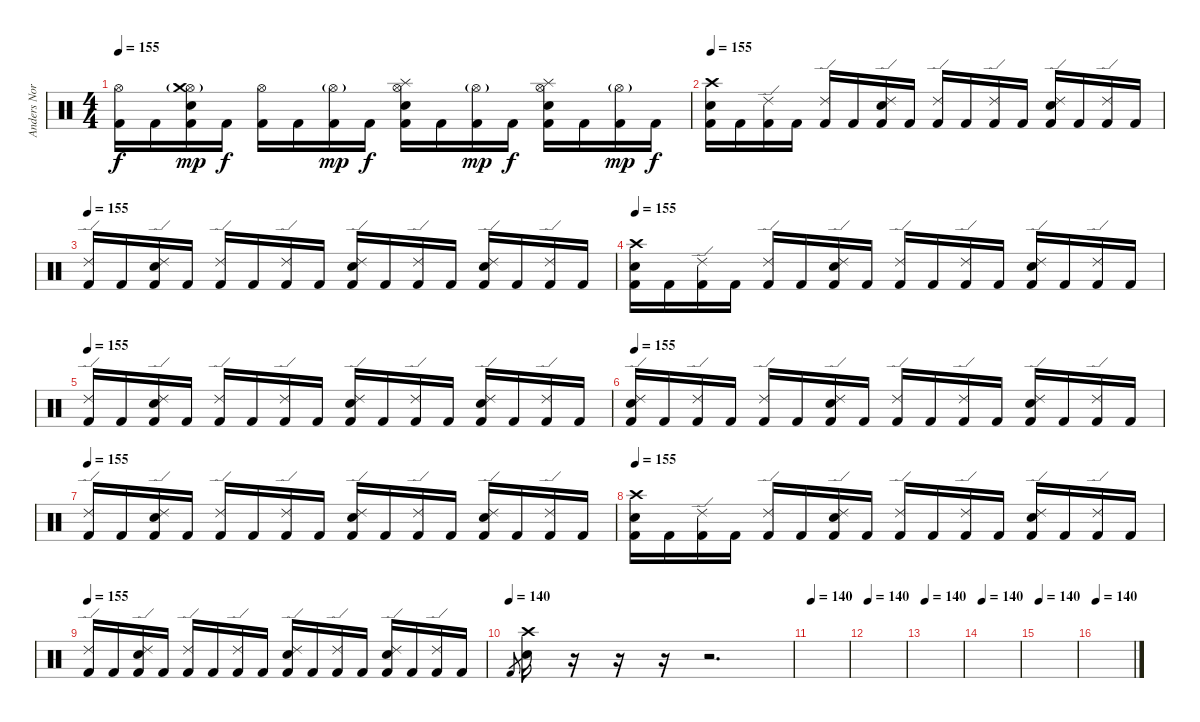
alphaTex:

\track ("Anders Nordin" "Anders Nor") {instrument percussion}
\staff {score}
\articulation defaults
\ts (4 4)
\tempo 155
\clef neutral
\ks c
("Kick (hit) 2" "Hi-Hat (open)").16{dy f} "Kick (hit) 2".16 ("Kick (hit) 2" "Electric Snare (hit)" "Hi-Hat (open)"{g} "Crash medium (hit)").16{dy mp} "Kick (hit) 2".16{dy f} ("Kick (hit) 2" "Hi-Hat (open)").16 "Kick (hit) 2".16 ("Kick (hit) 2" "Hi-Hat (open)"{g}).16{dy mp} "Kick (hit) 2".16{dy f} ("Kick (hit) 2" "Electric Snare (hit)" "Hi-Hat (open)" "Splash (hit)").16 "Kick (hit) 2".16 ("Kick (hit) 2" "Hi-Hat (open)"{g}).16{dy mp} "Kick (hit) 2".16{dy f} ("Kick (hit) 2" "Electric Snare (hit)" "Hi-Hat (open)" "Splash (hit)").16 "Kick (hit) 2".16 ("Kick (hit) 2" "Hi-Hat (open)"{g}).16{dy mp} "Kick (hit) 2".16{dy f} |
\tempo 155
("Kick (hit) 2" "Electric Snare (hit)" "Crash high (hit)").16 "Kick (hit) 2".16 ("Kick (hit) 2" "Ride (edge) 2").16 "Kick (hit) 2".16 ("Kick (hit) 2" "Ride (edge) 2").16 "Kick (hit) 2".16 ("Kick (hit) 2" "Electric Snare (hit)" "Ride (edge) 2").16 "Kick (hit) 2".16 ("Kick (hit) 2" "Ride (edge) 2").16 "Kick (hit) 2".16 ("Kick (hit) 2" "Ride (edge) 2").16 "Kick (hit) 2".16 ("Kick (hit) 2" "Electric Snare (hit)" "Ride (edge) 2").16 "Kick (hit) 2".16 ("Kick (hit) 2" "Ride (edge) 2").16 "Kick (hit) 2".16 |
\tempo 155
("Kick (hit) 2" "Ride (edge) 2").16 "Kick (hit) 2".16 ("Kick (hit) 2" "Electric Snare (hit)" "Ride (edge) 2").16 "Kick (hit) 2".16 ("Kick (hit) 2" "Ride (edge) 2").16 "Kick (hit) 2".16 ("Kick (hit) 2" "Ride (edge) 2").16 "Kick (hit) 2".16 ("Kick (hit) 2" "Electric Snare (hit)" "Ride (edge) 2").16 "Kick (hit) 2".16 ("Kick (hit) 2" "Ride (edge) 2").16 "Kick (hit) 2".16 ("Kick (hit) 2" "Electric Snare (hit)" "Ride (edge) 2").16 "Kick (hit) 2".16 ("Kick (hit) 2" "Ride (edge) 2").16 "Kick (hit) 2".16 |
\tempo 155
("Kick (hit) 2" "Electric Snare (hit)" "Crash high (hit)").16 "Kick (hit) 2".16 ("Kick (hit) 2" "Ride (edge) 2").16 "Kick (hit) 2".16 ("Kick (hit) 2" "Ride (edge) 2").16 "Kick (hit) 2".16 ("Kick (hit) 2" "Electric Snare (hit)" "Ride (edge) 2").16 "Kick (hit) 2".16 ("Kick (hit) 2" "Ride (edge) 2").16 "Kick (hit) 2".16 ("Kick (hit) 2" "Ride (edge) 2").16 "Kick (hit) 2".16 ("Kick (hit) 2" "Electric Snare (hit)" "Ride (edge) 2").16 "Kick (hit) 2".16 ("Kick (hit) 2" "Ride (edge) 2").16 "Kick (hit) 2".16 |
\tempo 155
("Kick (hit) 2" "Ride (edge) 2").16 "Kick (hit) 2".16 ("Kick (hit) 2" "Electric Snare (hit)" "Ride (edge) 2").16 "Kick (hit) 2".16 ("Kick (hit) 2" "Ride (edge) 2").16 "Kick (hit) 2".16 ("Kick (hit) 2" "Ride (edge) 2").16 "Kick (hit) 2".16 ("Kick (hit) 2" "Electric Snare (hit)" "Ride (edge) 2").16 "Kick (hit) 2".16 ("Kick (hit) 2" "Ride (edge) 2").16 "Kick (hit) 2".16 ("Kick (hit) 2" "Electric Snare (hit)" "Ride (edge) 2").16 "Kick (hit) 2".16 ("Kick (hit) 2" "Ride (edge) 2").16 "Kick (hit) 2".16 |
\tempo 155
("Kick (hit) 2" "Electric Snare (hit)" "Ride (edge) 2").16 "Kick (hit) 2".16 ("Kick (hit) 2" "Ride (edge) 2").16 "Kick (hit) 2".16 ("Kick (hit) 2" "Ride (edge) 2").16 "Kick (hit) 2".16 ("Kick (hit) 2" "Electric Snare (hit)" "Ride (edge) 2").16 "Kick (hit) 2".16 ("Kick (hit) 2" "Ride (edge) 2").16 "Kick (hit) 2".16 ("Kick (hit) 2" "Ride (edge) 2").16 "Kick (hit) 2".16 ("Kick (hit) 2" "Electric Snare (hit)" "Ride (edge) 2").16 "Kick (hit) 2".16 ("Kick (hit) 2" "Ride (edge) 2").16 "Kick (hit) 2".16 |
\tempo 155
("Kick (hit) 2" "Ride (edge) 2").16 "Kick (hit) 2".16 ("Kick (hit) 2" "Electric Snare (hit)" "Ride (edge) 2").16 "Kick (hit) 2".16 ("Kick (hit) 2" "Ride (edge) 2").16 "Kick (hit) 2".16 ("Kick (hit) 2" "Ride (edge) 2").16 "Kick (hit) 2".16 ("Kick (hit) 2" "Electric Snare (hit)" "Ride (edge) 2").16 "Kick (hit) 2".16 ("Kick (hit) 2" "Ride (edge) 2").16 "Kick (hit) 2".16 ("Kick (hit) 2" "Electric Snare (hit)" "Ride (edge) 2").16 "Kick (hit) 2".16 ("Kick (hit) 2" "Ride (edge) 2").16 "Kick (hit) 2".16 |
\tempo 155
("Kick (hit) 2" "Electric Snare (hit)" "Crash high (hit)").16 "Kick (hit) 2".16 ("Kick (hit) 2" "Ride (edge) 2").16 "Kick (hit) 2".16 ("Kick (hit) 2" "Ride (edge) 2").16 "Kick (hit) 2".16 ("Kick (hit) 2" "Electric Snare (hit)" "Ride (edge) 2").16 "Kick (hit) 2".16 ("Kick (hit) 2" "Ride (edge) 2").16 "Kick (hit) 2".16 ("Kick (hit) 2" "Ride (edge) 2").16 "Kick (hit) 2".16 ("Kick (hit) 2" "Electric Snare (hit)" "Ride (edge) 2").16 "Kick (hit) 2".16 ("Kick (hit) 2" "Ride (edge) 2").16 "Kick (hit) 2".16 |
\tempo 155
("Kick (hit) 2" "Ride (edge) 2").16 "Kick (hit) 2".16 ("Kick (hit) 2" "Electric Snare (hit)" "Ride (edge) 2").16 "Kick (hit) 2".16 ("Kick (hit) 2" "Ride (edge) 2").16 "Kick (hit) 2".16 ("Kick (hit) 2" "Ride (edge) 2").16 "Kick (hit) 2".16 ("Kick (hit) 2" "Electric Snare (hit)" "Ride (edge) 2").16 "Kick (hit) 2".16 ("Kick (hit) 2" "Ride (edge) 2").16 "Kick (hit) 2".16 ("Kick (hit) 2" "Electric Snare (hit)" "Ride (edge) 2").16 "Kick (hit) 2".16 ("Kick (hit) 2" "Ride (edge) 2").16 "Kick (hit) 2".16 |
\tempo (140)
"Kick (hit) 2".8{gr} ("Electric Snare (hit)" "Crash high (hit)").16 r.16 r.16 r.16 r.2{d} |
\tempo 140
|
\tempo 140
|
\tempo 140
|
\tempo 140
|
\tempo 140
|
\tempo 140
